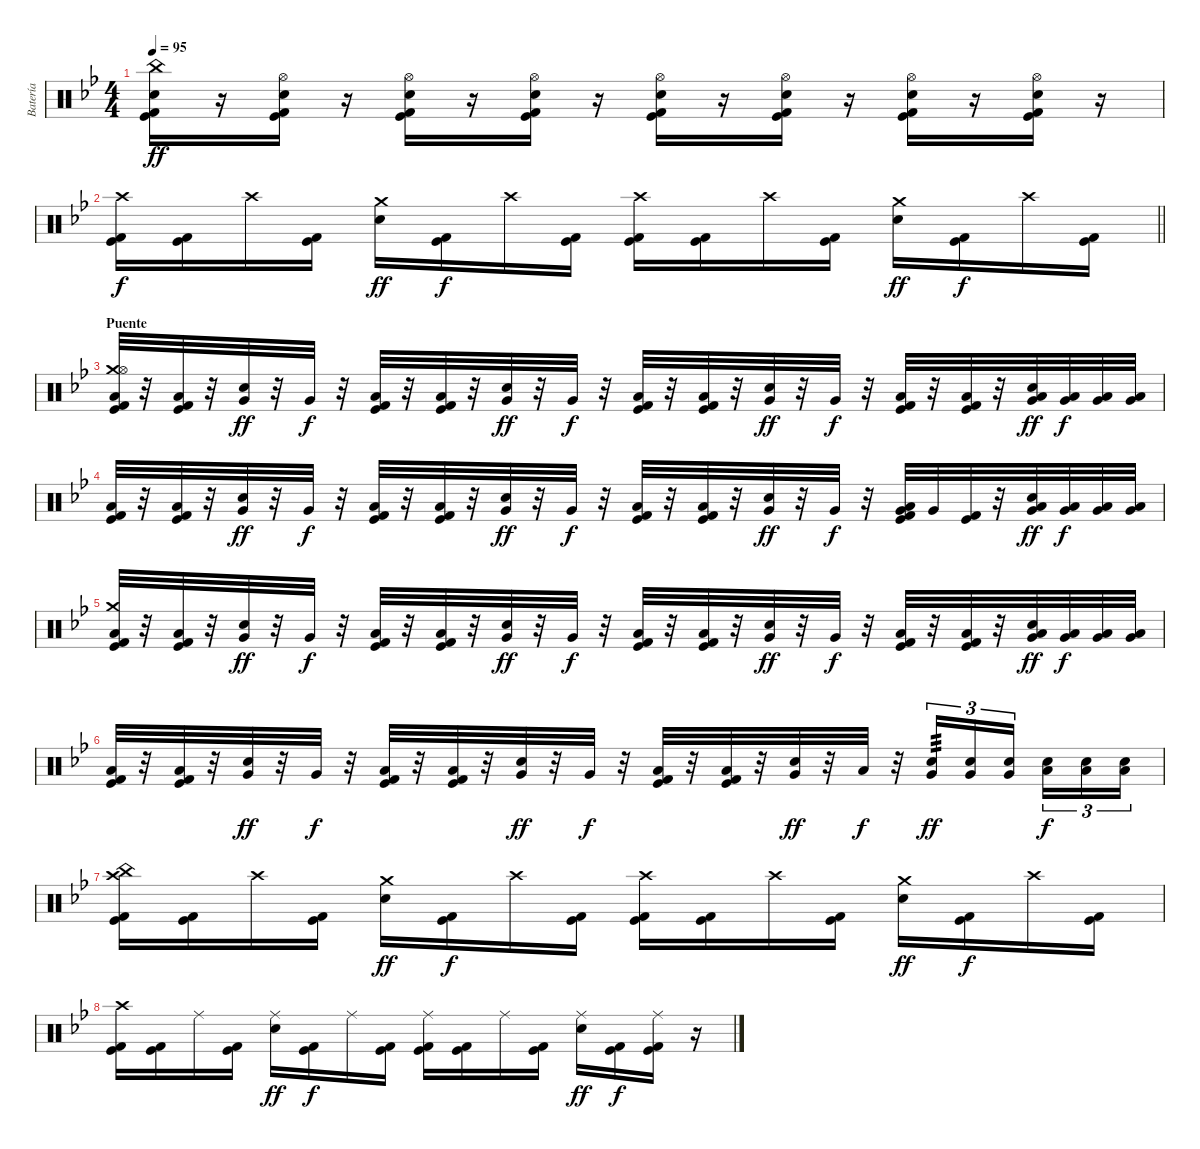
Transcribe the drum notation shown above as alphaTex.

\track ("Batería" "Batería") {instrument percussion}
\staff {score}
\articulation defaults
\ts (4 4)
\tempo 95
\clef neutral
\ks bb
("China (hit)" "Electric Snare (hit)" "Kick (hit) 2" "Kick (hit)").16{bd 60 dy ff} r.16 ("Hi-Hat (open)" "Electric Snare (hit)" "Kick (hit) 2" "Kick (hit)").16{bd 60} r.16 ("Hi-Hat (open)" "Electric Snare (hit)" "Kick (hit) 2" "Kick (hit)").16{bd 60} r.16 ("Hi-Hat (open)" "Electric Snare (hit)" "Kick (hit) 2" "Kick (hit)").16{bd 60} r.16 ("Hi-Hat (open)" "Electric Snare (hit)" "Kick (hit) 2" "Kick (hit)").16{bd 60} r.16 ("Hi-Hat (open)" "Electric Snare (hit)" "Kick (hit) 2" "Kick (hit)").16{bd 60} r.16 ("Hi-Hat (open)" "Electric Snare (hit)" "Kick (hit) 2" "Kick (hit)").16{bd 60} r.16 ("Hi-Hat (open)" "Electric Snare (hit)" "Kick (hit) 2" "Kick (hit)").16{bd 60} r.16 |
\barLineRight lightlight
("Crash high (hit)" "Kick (hit) 2" "Kick (hit)").16{dy f} ("Kick (hit) 2" "Kick (hit)").16 "Crash high (hit)".16 ("Kick (hit) 2" "Kick (hit)").16 ("Crash medium (hit)" "Electric Snare (hit)").16{dy ff} ("Kick (hit) 2" "Kick (hit)").16{dy f} "Crash high (hit)".16 ("Kick (hit) 2" "Kick (hit)").16 ("Crash high (hit)" "Kick (hit) 2" "Kick (hit)").16 ("Kick (hit) 2" "Kick (hit)").16 "Crash high (hit)".16 ("Kick (hit) 2" "Kick (hit)").16 ("Crash medium (hit)" "Electric Snare (hit)").16{dy ff} ("Kick (hit) 2" "Kick (hit)").16{dy f} "Crash high (hit)".16 ("Kick (hit) 2" "Kick (hit)").16 |
\section ("" "Puente")
("Crash medium (hit)" "Hi-Hat (open)" "Low Floor Tom (hit)" "Kick (hit) 2" "Kick (hit)").32 r.32 ("Low Floor Tom (hit)" "Kick (hit) 2" "Kick (hit)").32 r.32 ("Very Low Tom (hit)" "Electric Snare (hit)").32{dy ff} r.32 "Very Low Tom (hit)".32{dy f} r.32 ("Low Floor Tom (hit)" "Kick (hit) 2" "Kick (hit)").32 r.32 ("Low Floor Tom (hit)" "Kick (hit) 2" "Kick (hit)").32 r.32 ("Very Low Tom (hit)" "Electric Snare (hit)").32{dy ff} r.32 "Very Low Tom (hit)".32{dy f} r.32 ("Low Floor Tom (hit)" "Kick (hit) 2" "Kick (hit)").32 r.32 ("Low Floor Tom (hit)" "Kick (hit) 2" "Kick (hit)").32 r.32 ("Very Low Tom (hit)" "Electric Snare (hit)").32{dy ff} r.32 "Very Low Tom (hit)".32{dy f} r.32 ("Low Floor Tom (hit)" "Kick (hit) 2" "Kick (hit)").32 r.32 ("Low Floor Tom (hit)" "Kick (hit) 2" "Kick (hit)").32 r.32 ("Very Low Tom (hit)" "Low Floor Tom (hit)" "Electric Snare (hit)").32{dy ff} ("Very Low Tom (hit)" "Low Floor Tom (hit)").32{dy f} ("Very Low Tom (hit)" "Low Floor Tom (hit)").32 ("Very Low Tom (hit)" "Low Floor Tom (hit)").32 |
("Low Floor Tom (hit)" "Kick (hit) 2" "Kick (hit)").32 r.32 ("Low Floor Tom (hit)" "Kick (hit) 2" "Kick (hit)").32 r.32 ("Very Low Tom (hit)" "Electric Snare (hit)").32{dy ff} r.32 "Very Low Tom (hit)".32{dy f} r.32 ("Low Floor Tom (hit)" "Kick (hit) 2" "Kick (hit)").32 r.32 ("Low Floor Tom (hit)" "Kick (hit) 2" "Kick (hit)").32 r.32 ("Very Low Tom (hit)" "Electric Snare (hit)").32{dy ff} r.32 "Very Low Tom (hit)".32{dy f} r.32 ("Low Floor Tom (hit)" "Kick (hit) 2" "Kick (hit)").32 r.32 ("Low Floor Tom (hit)" "Kick (hit) 2" "Kick (hit)").32 r.32 ("Very Low Tom (hit)" "Electric Snare (hit)").32{dy ff} r.32 "Very Low Tom (hit)".32{dy f} r.32 ("Very Low Tom (hit)" "Low Floor Tom (hit)" "Kick (hit) 2" "Kick (hit)").32 "Very Low Tom (hit)".32 ("Kick (hit) 2" "Kick (hit)").32 r.32 ("Very Low Tom (hit)" "Low Floor Tom (hit)" "Electric Snare (hit)").32{dy ff} ("Very Low Tom (hit)" "Low Floor Tom (hit)").32{dy f} ("Very Low Tom (hit)" "Low Floor Tom (hit)").32 ("Very Low Tom (hit)" "Low Floor Tom (hit)").32 |
("Crash medium (hit)" "Low Floor Tom (hit)" "Kick (hit) 2" "Kick (hit)").32 r.32 ("Low Floor Tom (hit)" "Kick (hit) 2" "Kick (hit)").32 r.32 ("Very Low Tom (hit)" "Electric Snare (hit)").32{dy ff} r.32 "Very Low Tom (hit)".32{dy f} r.32 ("Low Floor Tom (hit)" "Kick (hit) 2" "Kick (hit)").32 r.32 ("Low Floor Tom (hit)" "Kick (hit) 2" "Kick (hit)").32 r.32 ("Very Low Tom (hit)" "Electric Snare (hit)").32{dy ff} r.32 "Very Low Tom (hit)".32{dy f} r.32 ("Low Floor Tom (hit)" "Kick (hit) 2" "Kick (hit)").32 r.32 ("Low Floor Tom (hit)" "Kick (hit) 2" "Kick (hit)").32 r.32 ("Very Low Tom (hit)" "Electric Snare (hit)").32{dy ff} r.32 "Very Low Tom (hit)".32{dy f} r.32 ("Low Floor Tom (hit)" "Kick (hit) 2" "Kick (hit)").32 r.32 ("Low Floor Tom (hit)" "Kick (hit) 2" "Kick (hit)").32 r.32 ("Very Low Tom (hit)" "Low Floor Tom (hit)" "Electric Snare (hit)").32{dy ff} ("Very Low Tom (hit)" "Low Floor Tom (hit)").32{dy f} ("Very Low Tom (hit)" "Low Floor Tom (hit)").32 ("Very Low Tom (hit)" "Low Floor Tom (hit)").32 |
("Low Floor Tom (hit)" "Kick (hit) 2" "Kick (hit)").32 r.32 ("Low Floor Tom (hit)" "Kick (hit) 2" "Kick (hit)").32 r.32 ("Very Low Tom (hit)" "Electric Snare (hit)").32{dy ff} r.32 "Very Low Tom (hit)".32{dy f} r.32 ("Low Floor Tom (hit)" "Kick (hit) 2" "Kick (hit)").32 r.32 ("Low Floor Tom (hit)" "Kick (hit) 2" "Kick (hit)").32 r.32 ("Very Low Tom (hit)" "Electric Snare (hit)").32{dy ff} r.32 "Very Low Tom (hit)".32{dy f} r.32 ("Low Floor Tom (hit)" "Kick (hit) 2" "Kick (hit)").32 r.32 ("Low Floor Tom (hit)" "Kick (hit) 2" "Kick (hit)").32 r.32 ("Very Low Tom (hit)" "Electric Snare (hit)").32{dy ff} r.32 "Low Floor Tom (hit)".32{dy f} r.32 ("Very Low Tom (hit)" "Electric Snare (hit)").16{tu (3 2) tp 3 dy ff} ("Very Low Tom (hit)" "Electric Snare (hit)").16{tu (3 2)} ("Very Low Tom (hit)" "Electric Snare (hit)").16{tu (3 2) beam splitsecondary} ("Low Tom (hit)" "Electric Snare (hit)").16{tu (3 2) dy f} ("Low Tom (hit)" "Electric Snare (hit)").16{tu (3 2)} ("Low Tom (hit)" "Electric Snare (hit)").16{tu (3 2)} |
("China (hit)" "Crash high (hit)" "Kick (hit) 2" "Kick (hit)").16 ("Kick (hit) 2" "Kick (hit)").16 "Crash high (hit)".16 ("Kick (hit) 2" "Kick (hit)").16 ("Crash medium (hit)" "Electric Snare (hit)").16{dy ff} ("Kick (hit) 2" "Kick (hit)").16{dy f} "Crash high (hit)".16 ("Kick (hit) 2" "Kick (hit)").16 ("Crash high (hit)" "Kick (hit) 2" "Kick (hit)").16 ("Kick (hit) 2" "Kick (hit)").16 "Crash high (hit)".16 ("Kick (hit) 2" "Kick (hit)").16 ("Crash medium (hit)" "Electric Snare (hit)").16{dy ff} ("Kick (hit) 2" "Kick (hit)").16{dy f} "Crash high (hit)".16 ("Kick (hit) 2" "Kick (hit)").16 |
("Crash high (hit)" "Kick (hit) 2" "Kick (hit)").16 ("Kick (hit) 2" "Kick (hit)").16 "Ride (middle)".16 ("Kick (hit) 2" "Kick (hit)").16 ("Ride (middle)" "Electric Snare (hit)").16{dy ff} ("Kick (hit) 2" "Kick (hit)").16{dy f} "Ride (middle)".16 ("Kick (hit) 2" "Kick (hit)").16 ("Ride (middle)" "Kick (hit) 2" "Kick (hit)").16 ("Kick (hit) 2" "Kick (hit)").16 "Ride (middle)".16 ("Kick (hit) 2" "Kick (hit)").16 ("Ride (middle)" "Electric Snare (hit)").16{dy ff} ("Kick (hit) 2" "Kick (hit)").16{dy f} ("Ride (middle)" "Kick (hit) 2" "Kick (hit)").16 r.16
